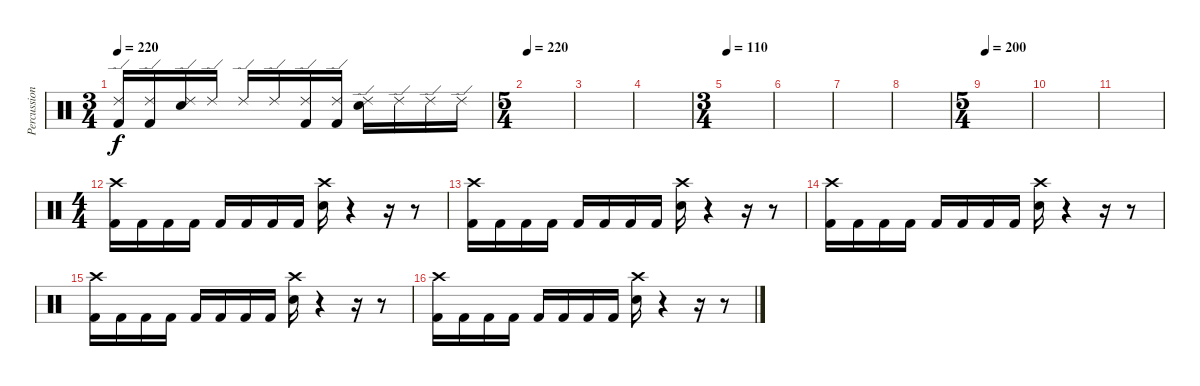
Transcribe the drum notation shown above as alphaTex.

\track ("Percussion" "Percussion") {instrument percussion}
\staff {score}
\articulation defaults
\ts (3 4)
\tempo 220
\clef neutral
\ks c
("Kick (hit) 2" "Ride (edge) 2").16{dy f} ("Kick (hit) 2" "Ride (edge) 2").16 ("Electric Snare (hit)" "Ride (edge) 2").16 "Ride (edge) 2".16 "Ride (edge) 2".16 "Ride (edge) 2".16 ("Kick (hit) 2" "Ride (edge) 2").16 ("Kick (hit) 2" "Ride (edge) 2").16 ("Electric Snare (hit)" "Ride (edge) 2").16 "Ride (edge) 2".16 "Ride (edge) 2".16 "Ride (edge) 2".16 |
\ts (5 4)
\tempo 200
\tempo 220
|
|
|
\ts (3 4)
\tempo 110
|
|
|
|
\ts (5 4)
\tempo 200
|
|
|
\ts (4 4)
("Crash high (hit)" "Kick (hit) 2").16 "Kick (hit) 2".16 "Kick (hit) 2".16 "Kick (hit) 2".16 "Kick (hit) 2".16 "Kick (hit) 2".16 "Kick (hit) 2".16 "Kick (hit) 2".16 ("Crash high (hit)" "Electric Snare (hit)").16 r.4 r.16 r.8 |
("Crash high (hit)" "Kick (hit) 2").16 "Kick (hit) 2".16 "Kick (hit) 2".16 "Kick (hit) 2".16 "Kick (hit) 2".16 "Kick (hit) 2".16 "Kick (hit) 2".16 "Kick (hit) 2".16 ("Crash high (hit)" "Electric Snare (hit)").16 r.4 r.16 r.8 |
("Crash high (hit)" "Kick (hit) 2").16 "Kick (hit) 2".16 "Kick (hit) 2".16 "Kick (hit) 2".16 "Kick (hit) 2".16 "Kick (hit) 2".16 "Kick (hit) 2".16 "Kick (hit) 2".16 ("Crash high (hit)" "Electric Snare (hit)").16 r.4 r.16 r.8 |
("Crash high (hit)" "Kick (hit) 2").16 "Kick (hit) 2".16 "Kick (hit) 2".16 "Kick (hit) 2".16 "Kick (hit) 2".16 "Kick (hit) 2".16 "Kick (hit) 2".16 "Kick (hit) 2".16 ("Crash high (hit)" "Electric Snare (hit)").16 r.4 r.16 r.8 |
("Crash high (hit)" "Kick (hit) 2").16 "Kick (hit) 2".16 "Kick (hit) 2".16 "Kick (hit) 2".16 "Kick (hit) 2".16 "Kick (hit) 2".16 "Kick (hit) 2".16 "Kick (hit) 2".16 ("Crash high (hit)" "Electric Snare (hit)").16 r.4 r.16 r.8
